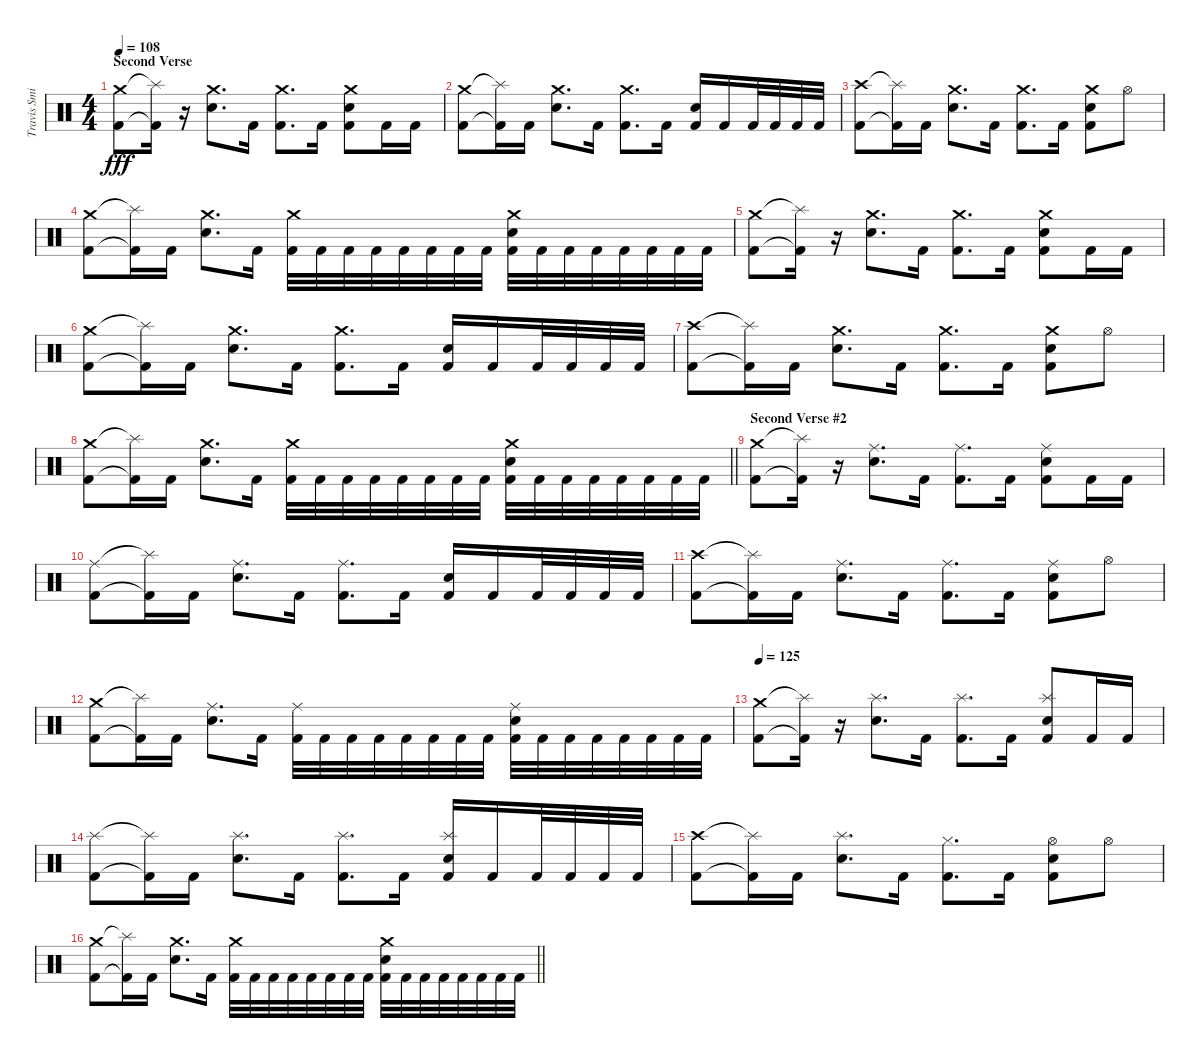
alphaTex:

\track ("Travis Smith" "Travis Smi") {instrument percussion}
\staff {score}
\articulation defaults
\ts (4 4)
\section ("" "Second Verse")
\tempo 108
\clef neutral
\ks c
("Crash medium (hit)" "Kick (hit) 2").8{dy fff} ("Splash (hit)"{t} "Kick (hit) 2"{t}).16 r.16 ("Crash medium (hit)" "Snare (hit) 2").8{d} "Kick (hit) 2".16 ("Crash medium (hit)" "Kick (hit) 2").8{d} "Kick (hit) 2".16 ("Crash medium (hit)" "Snare (hit) 2" "Kick (hit) 2").8 "Kick (hit) 2".16 "Kick (hit) 2".16 |
("Crash medium (hit)" "Kick (hit) 2").8 ("Splash (hit)"{t} "Kick (hit) 2"{t}).16 "Kick (hit) 2".16 ("Crash medium (hit)" "Snare (hit) 2").8{d} "Kick (hit) 2".16 ("Crash medium (hit)" "Kick (hit) 2").8{d} "Kick (hit) 2".16 ("Snare (hit) 2" "Kick (hit) 2").16 "Kick (hit) 2".16 "Kick (hit) 2".32 "Kick (hit) 2".32 "Kick (hit) 2".32 "Kick (hit) 2".32 |
("Crash high (hit)" "Kick (hit) 2").8 ("Splash (hit)"{t} "Kick (hit) 2"{t}).16 "Kick (hit) 2".16 ("Crash medium (hit)" "Snare (hit) 2").8{d} "Kick (hit) 2".16 ("Crash medium (hit)" "Kick (hit) 2").8{d} "Kick (hit) 2".16 ("Crash medium (hit)" "Snare (hit) 2" "Kick (hit) 2").8 "Hi-Hat (open)".8 |
("Crash medium (hit)" "Kick (hit) 2").8 ("Splash (hit)"{t} "Kick (hit) 2"{t}).16 "Kick (hit) 2".16 ("Crash medium (hit)" "Snare (hit) 2").8{d} "Kick (hit) 2".16 ("Crash medium (hit)" "Kick (hit) 2").32 "Kick (hit) 2".32 "Kick (hit) 2".32 "Kick (hit) 2".32 "Kick (hit) 2".32 "Kick (hit) 2".32 "Kick (hit) 2".32 "Kick (hit) 2".32 ("Crash medium (hit)" "Snare (hit) 2" "Kick (hit) 2").32 "Kick (hit) 2".32 "Kick (hit) 2".32 "Kick (hit) 2".32 "Kick (hit) 2".32 "Kick (hit) 2".32 "Kick (hit) 2".32 "Kick (hit) 2".32 |
("Crash medium (hit)" "Kick (hit) 2").8 ("Splash (hit)"{t} "Kick (hit) 2"{t}).16 r.16 ("Crash medium (hit)" "Snare (hit) 2").8{d} "Kick (hit) 2".16 ("Crash medium (hit)" "Kick (hit) 2").8{d} "Kick (hit) 2".16 ("Crash medium (hit)" "Snare (hit) 2" "Kick (hit) 2").8 "Kick (hit) 2".16 "Kick (hit) 2".16 |
("Crash medium (hit)" "Kick (hit) 2").8 ("Splash (hit)"{t} "Kick (hit) 2"{t}).16 "Kick (hit) 2".16 ("Crash medium (hit)" "Snare (hit) 2").8{d} "Kick (hit) 2".16 ("Crash medium (hit)" "Kick (hit) 2").8{d} "Kick (hit) 2".16 ("Snare (hit) 2" "Kick (hit) 2").16 "Kick (hit) 2".16 "Kick (hit) 2".32 "Kick (hit) 2".32 "Kick (hit) 2".32 "Kick (hit) 2".32 |
("Crash high (hit)" "Kick (hit) 2").8 ("Splash (hit)"{t} "Kick (hit) 2"{t}).16 "Kick (hit) 2".16 ("Crash medium (hit)" "Snare (hit) 2").8{d} "Kick (hit) 2".16 ("Crash medium (hit)" "Kick (hit) 2").8{d} "Kick (hit) 2".16 ("Crash medium (hit)" "Snare (hit) 2" "Kick (hit) 2").8 "Hi-Hat (open)".8 |
\barLineRight lightlight
("Crash medium (hit)" "Kick (hit) 2").8 ("Splash (hit)"{t} "Kick (hit) 2"{t}).16 "Kick (hit) 2".16 ("Crash medium (hit)" "Snare (hit) 2").8{d} "Kick (hit) 2".16 ("Crash medium (hit)" "Kick (hit) 2").32 "Kick (hit) 2".32 "Kick (hit) 2".32 "Kick (hit) 2".32 "Kick (hit) 2".32 "Kick (hit) 2".32 "Kick (hit) 2".32 "Kick (hit) 2".32 ("Crash medium (hit)" "Snare (hit) 2" "Kick (hit) 2").32 "Kick (hit) 2".32 "Kick (hit) 2".32 "Kick (hit) 2".32 "Kick (hit) 2".32 "Kick (hit) 2".32 "Kick (hit) 2".32 "Kick (hit) 2".32 |
\section ("" "Second Verse #2")
("Crash medium (hit)" "Kick (hit) 2").8 ("Splash (hit)"{t} "Kick (hit) 2"{t}).16 r.16 ("Ride (middle)" "Snare (hit) 2").8{d} "Kick (hit) 2".16 ("Ride (middle)" "Kick (hit) 2").8{d} "Kick (hit) 2".16 ("Ride (middle)" "Snare (hit) 2" "Kick (hit) 2").8 "Kick (hit) 2".16 "Kick (hit) 2".16 |
("Ride (middle)" "Kick (hit) 2").8 ("Splash (hit)"{t} "Kick (hit) 2"{t}).16 "Kick (hit) 2".16 ("Ride (middle)" "Snare (hit) 2").8{d} "Kick (hit) 2".16 ("Ride (middle)" "Kick (hit) 2").8{d} "Kick (hit) 2".16 ("Snare (hit) 2" "Kick (hit) 2").16 "Kick (hit) 2".16 "Kick (hit) 2".32 "Kick (hit) 2".32 "Kick (hit) 2".32 "Kick (hit) 2".32 |
("Crash high (hit)" "Kick (hit) 2").8 ("Splash (hit)"{t} "Kick (hit) 2"{t}).16 "Kick (hit) 2".16 ("Ride (middle)" "Snare (hit) 2").8{d} "Kick (hit) 2".16 ("Ride (middle)" "Kick (hit) 2").8{d} "Kick (hit) 2".16 ("Ride (middle)" "Snare (hit) 2" "Kick (hit) 2").8 "Hi-Hat (open)".8 |
("Crash medium (hit)" "Kick (hit) 2").8 ("Splash (hit)"{t} "Kick (hit) 2"{t}).16 "Kick (hit) 2".16 ("Ride (middle)" "Snare (hit) 2").8{d} "Kick (hit) 2".16 ("Ride (middle)" "Kick (hit) 2").32 "Kick (hit) 2".32 "Kick (hit) 2".32 "Kick (hit) 2".32 "Kick (hit) 2".32 "Kick (hit) 2".32 "Kick (hit) 2".32 "Kick (hit) 2".32 ("Ride (middle)" "Snare (hit) 2" "Kick (hit) 2").32 "Kick (hit) 2".32 "Kick (hit) 2".32 "Kick (hit) 2".32 "Kick (hit) 2".32 "Kick (hit) 2".32 "Kick (hit) 2".32 "Kick (hit) 2".32 |
\tempo 125
("Crash medium (hit)" "Kick (hit) 2").8 ("Splash (hit)"{t} "Kick (hit) 2"{t}).16 r.16 ("Splash (hit)" "Snare (hit) 2").8{d} "Kick (hit) 2".16 ("Splash (hit)" "Kick (hit) 2").8{d} "Kick (hit) 2".16 ("Splash (hit)" "Snare (hit) 2" "Kick (hit) 2").8 "Kick (hit) 2".16 "Kick (hit) 2".16 |
("Splash (hit)" "Kick (hit) 2").8 ("Splash (hit)"{t} "Kick (hit) 2"{t}).16 "Kick (hit) 2".16 ("Splash (hit)" "Snare (hit) 2").8{d} "Kick (hit) 2".16 ("Splash (hit)" "Kick (hit) 2").8{d} "Kick (hit) 2".16 ("Splash (hit)" "Snare (hit) 2" "Kick (hit) 2").16 "Kick (hit) 2".16 "Kick (hit) 2".32 "Kick (hit) 2".32 "Kick (hit) 2".32 "Kick (hit) 2".32 |
("Crash high (hit)" "Kick (hit) 2").8 ("Splash (hit)"{t} "Kick (hit) 2"{t}).16 "Kick (hit) 2".16 ("Splash (hit)" "Snare (hit) 2").8{d} "Kick (hit) 2".16 ("Hi-Hat (closed)" "Kick (hit) 2").8{d} "Kick (hit) 2".16 ("Hi-Hat (open)" "Snare (hit) 2" "Kick (hit) 2").8 "Hi-Hat (open)".8 |
\barLineRight lightlight
("Crash medium (hit)" "Kick (hit) 2").8 ("Splash (hit)"{t} "Kick (hit) 2"{t}).16 "Kick (hit) 2".16 ("Crash medium (hit)" "Snare (hit) 2").8{d} "Kick (hit) 2".16 ("Crash medium (hit)" "Kick (hit) 2").32 "Kick (hit) 2".32 "Kick (hit) 2".32 "Kick (hit) 2".32 "Kick (hit) 2".32 "Kick (hit) 2".32 "Kick (hit) 2".32 "Kick (hit) 2".32 ("Crash medium (hit)" "Snare (hit) 2" "Kick (hit) 2").32 "Kick (hit) 2".32 "Kick (hit) 2".32 "Kick (hit) 2".32 "Kick (hit) 2".32 "Kick (hit) 2".32 "Kick (hit) 2".32 "Kick (hit) 2".32
